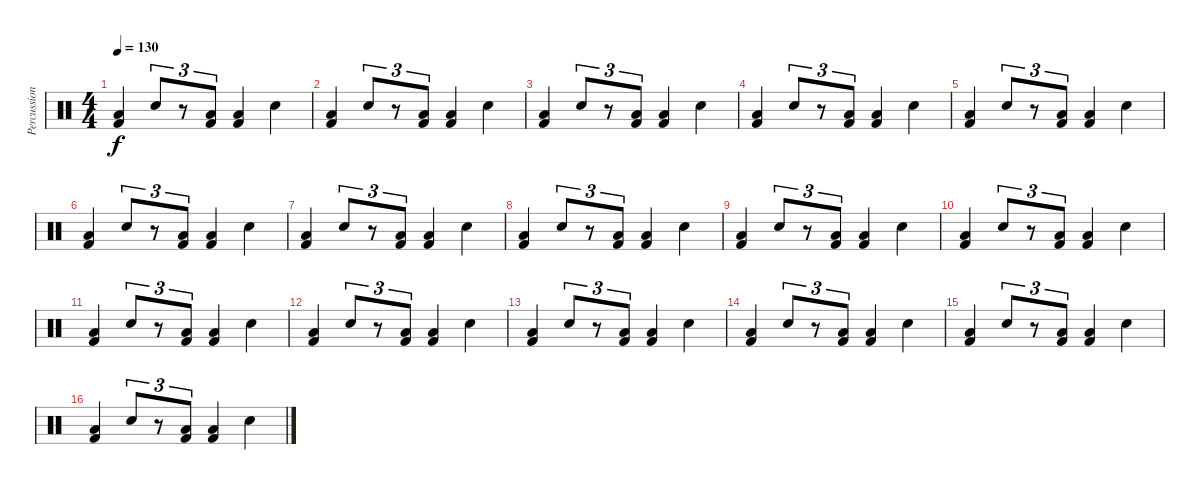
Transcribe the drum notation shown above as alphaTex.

\track ("Percussion" "Percussion") {instrument percussion}
\staff {score}
\articulation defaults
\ts (4 4)
\tempo 130
\clef neutral
\ks c
("Low Floor Tom (hit)" "Kick (hit) 2").4{dy f} "Snare (hit) 2".8{tu (3 2)} r.8{tu (3 2)} ("Low Floor Tom (hit)" "Kick (hit) 2").8{tu (3 2)} ("Low Floor Tom (hit)" "Kick (hit) 2").4 "Snare (hit) 2".4 |
("Low Floor Tom (hit)" "Kick (hit) 2").4 "Snare (hit) 2".8{tu (3 2)} r.8{tu (3 2)} ("Low Floor Tom (hit)" "Kick (hit) 2").8{tu (3 2)} ("Low Floor Tom (hit)" "Kick (hit) 2").4 "Snare (hit) 2".4 |
("Low Floor Tom (hit)" "Kick (hit) 2").4 "Snare (hit) 2".8{tu (3 2)} r.8{tu (3 2)} ("Low Floor Tom (hit)" "Kick (hit) 2").8{tu (3 2)} ("Low Floor Tom (hit)" "Kick (hit) 2").4 "Snare (hit) 2".4 |
("Low Floor Tom (hit)" "Kick (hit) 2").4 "Snare (hit) 2".8{tu (3 2)} r.8{tu (3 2)} ("Low Floor Tom (hit)" "Kick (hit) 2").8{tu (3 2)} ("Low Floor Tom (hit)" "Kick (hit) 2").4 "Snare (hit) 2".4 |
("Low Floor Tom (hit)" "Kick (hit) 2").4 "Snare (hit) 2".8{tu (3 2)} r.8{tu (3 2)} ("Low Floor Tom (hit)" "Kick (hit) 2").8{tu (3 2)} ("Low Floor Tom (hit)" "Kick (hit) 2").4 "Snare (hit) 2".4 |
("Low Floor Tom (hit)" "Kick (hit) 2").4 "Snare (hit) 2".8{tu (3 2)} r.8{tu (3 2)} ("Low Floor Tom (hit)" "Kick (hit) 2").8{tu (3 2)} ("Low Floor Tom (hit)" "Kick (hit) 2").4 "Snare (hit) 2".4 |
("Low Floor Tom (hit)" "Kick (hit) 2").4 "Snare (hit) 2".8{tu (3 2)} r.8{tu (3 2)} ("Low Floor Tom (hit)" "Kick (hit) 2").8{tu (3 2)} ("Low Floor Tom (hit)" "Kick (hit) 2").4 "Snare (hit) 2".4 |
("Low Floor Tom (hit)" "Kick (hit) 2").4 "Snare (hit) 2".8{tu (3 2)} r.8{tu (3 2)} ("Low Floor Tom (hit)" "Kick (hit) 2").8{tu (3 2)} ("Low Floor Tom (hit)" "Kick (hit) 2").4 "Snare (hit) 2".4 |
("Low Floor Tom (hit)" "Kick (hit) 2").4 "Snare (hit) 2".8{tu (3 2)} r.8{tu (3 2)} ("Low Floor Tom (hit)" "Kick (hit) 2").8{tu (3 2)} ("Low Floor Tom (hit)" "Kick (hit) 2").4 "Snare (hit) 2".4 |
("Low Floor Tom (hit)" "Kick (hit) 2").4 "Snare (hit) 2".8{tu (3 2)} r.8{tu (3 2)} ("Low Floor Tom (hit)" "Kick (hit) 2").8{tu (3 2)} ("Low Floor Tom (hit)" "Kick (hit) 2").4 "Snare (hit) 2".4 |
("Low Floor Tom (hit)" "Kick (hit) 2").4 "Snare (hit) 2".8{tu (3 2)} r.8{tu (3 2)} ("Low Floor Tom (hit)" "Kick (hit) 2").8{tu (3 2)} ("Low Floor Tom (hit)" "Kick (hit) 2").4 "Snare (hit) 2".4 |
("Low Floor Tom (hit)" "Kick (hit) 2").4 "Snare (hit) 2".8{tu (3 2)} r.8{tu (3 2)} ("Low Floor Tom (hit)" "Kick (hit) 2").8{tu (3 2)} ("Low Floor Tom (hit)" "Kick (hit) 2").4 "Snare (hit) 2".4 |
("Low Floor Tom (hit)" "Kick (hit) 2").4 "Snare (hit) 2".8{tu (3 2)} r.8{tu (3 2)} ("Low Floor Tom (hit)" "Kick (hit) 2").8{tu (3 2)} ("Low Floor Tom (hit)" "Kick (hit) 2").4 "Snare (hit) 2".4 |
("Low Floor Tom (hit)" "Kick (hit) 2").4 "Snare (hit) 2".8{tu (3 2)} r.8{tu (3 2)} ("Low Floor Tom (hit)" "Kick (hit) 2").8{tu (3 2)} ("Low Floor Tom (hit)" "Kick (hit) 2").4 "Snare (hit) 2".4 |
("Low Floor Tom (hit)" "Kick (hit) 2").4 "Snare (hit) 2".8{tu (3 2)} r.8{tu (3 2)} ("Low Floor Tom (hit)" "Kick (hit) 2").8{tu (3 2)} ("Low Floor Tom (hit)" "Kick (hit) 2").4 "Snare (hit) 2".4 |
("Low Floor Tom (hit)" "Kick (hit) 2").4 "Snare (hit) 2".8{tu (3 2)} r.8{tu (3 2)} ("Low Floor Tom (hit)" "Kick (hit) 2").8{tu (3 2)} ("Low Floor Tom (hit)" "Kick (hit) 2").4 "Snare (hit) 2".4
